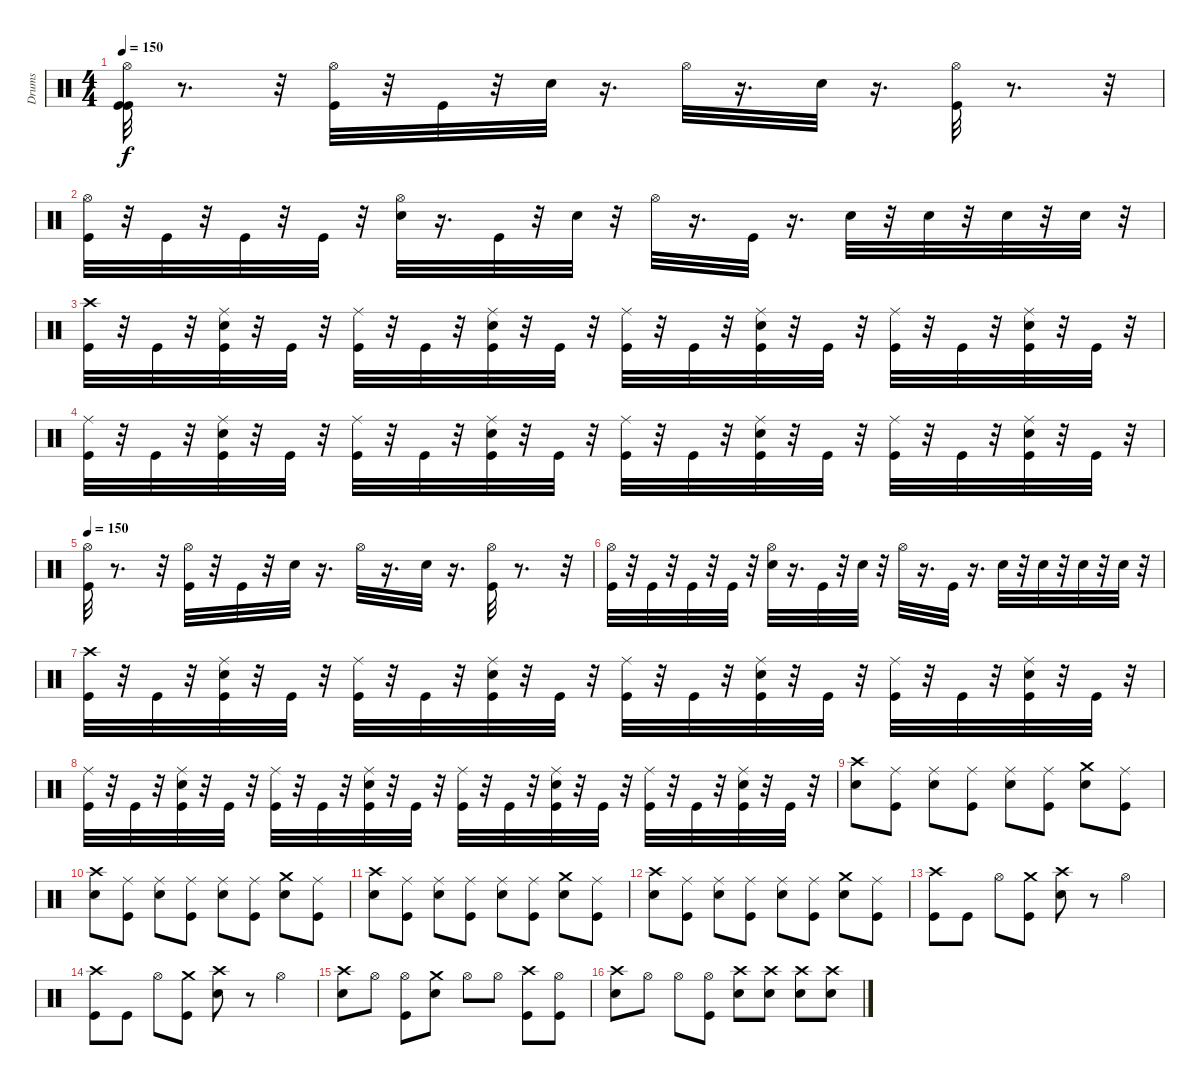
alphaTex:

\track ("Drums" "Drums") {instrument percussion}
\staff {score}
\articulation defaults
\ts (4 4)
\tempo 150
\clef neutral
\ks c
("Hi-Hat (open)" "Kick (hit)" "Kick (hit)").32{dy f} r.8{d} r.32 ("Hi-Hat (open)" "Kick (hit)").32 r.32 "Kick (hit)".32 r.32 "Electric Snare (hit)".32 r.16{d} "Hi-Hat (open)".32 r.16{d} "Electric Snare (hit)".32 r.16{d} ("Hi-Hat (open)" "Kick (hit)").32 r.8{d} r.32 |
("Hi-Hat (open)" "Kick (hit)").32 r.32 "Kick (hit)".32 r.32 "Kick (hit)".32 r.32 "Kick (hit)".32 r.32 ("Hi-Hat (open)" "Electric Snare (hit)").32 r.16{d} "Kick (hit)".32 r.32 "Electric Snare (hit)".32 r.32 "Hi-Hat (open)".32 r.16{d} "Kick (hit)".32 r.16{d} "Electric Snare (hit)".32 r.32 "Electric Snare (hit)".32 r.32 "Electric Snare (hit)".32 r.32 "Electric Snare (hit)".32 r.32 |
("Crash high (hit)" "Kick (hit)").32 r.32 "Kick (hit)".32 r.32 ("Ride (middle)" "Kick (hit)" "Electric Snare (hit)").32 r.32 "Kick (hit)".32 r.32 ("Ride (middle)" "Kick (hit)").32 r.32 "Kick (hit)".32 r.32 ("Ride (middle)" "Electric Snare (hit)" "Kick (hit)").32 r.32 "Kick (hit)".32 r.32 ("Ride (middle)" "Kick (hit)").32 r.32 "Kick (hit)".32 r.32 ("Ride (middle)" "Kick (hit)" "Electric Snare (hit)").32 r.32 "Kick (hit)".32 r.32 ("Ride (middle)" "Kick (hit)").32 r.32 "Kick (hit)".32 r.32 ("Ride (middle)" "Electric Snare (hit)" "Kick (hit)").32 r.32 "Kick (hit)".32 r.32 |
("Ride (middle)" "Kick (hit)").32 r.32 "Kick (hit)".32 r.32 ("Ride (middle)" "Electric Snare (hit)" "Kick (hit)").32 r.32 "Kick (hit)".32 r.32 ("Ride (middle)" "Kick (hit)").32 r.32 "Kick (hit)".32 r.32 ("Ride (middle)" "Electric Snare (hit)" "Kick (hit)").32 r.32 "Kick (hit)".32 r.32 ("Ride (middle)" "Kick (hit)").32 r.32 "Kick (hit)".32 r.32 ("Ride (middle)" "Electric Snare (hit)" "Kick (hit)").32 r.32 "Kick (hit)".32 r.32 ("Ride (middle)" "Kick (hit)").32 r.32 "Kick (hit)".32 r.32 ("Ride (middle)" "Electric Snare (hit)" "Kick (hit)").32 r.32 "Kick (hit)".32 r.32 |
\tempo 150
("Hi-Hat (open)" "Kick (hit)").32 r.8{d} r.32 ("Hi-Hat (open)" "Kick (hit)").32 r.32 "Kick (hit)".32 r.32 "Electric Snare (hit)".32 r.16{d} "Hi-Hat (open)".32 r.16{d} "Electric Snare (hit)".32 r.16{d} ("Hi-Hat (open)" "Kick (hit)").32 r.8{d} r.32 |
("Hi-Hat (open)" "Kick (hit)").32 r.32 "Kick (hit)".32 r.32 "Kick (hit)".32 r.32 "Kick (hit)".32 r.32 ("Hi-Hat (open)" "Electric Snare (hit)").32 r.16{d} "Kick (hit)".32 r.32 "Electric Snare (hit)".32 r.32 "Hi-Hat (open)".32 r.16{d} "Kick (hit)".32 r.16{d} "Electric Snare (hit)".32 r.32 "Electric Snare (hit)".32 r.32 "Electric Snare (hit)".32 r.32 "Electric Snare (hit)".32 r.32 |
("Crash high (hit)" "Kick (hit)").32 r.32 "Kick (hit)".32 r.32 ("Ride (middle)" "Kick (hit)" "Electric Snare (hit)").32 r.32 "Kick (hit)".32 r.32 ("Ride (middle)" "Kick (hit)").32 r.32 "Kick (hit)".32 r.32 ("Ride (middle)" "Electric Snare (hit)" "Kick (hit)").32 r.32 "Kick (hit)".32 r.32 ("Ride (middle)" "Kick (hit)").32 r.32 "Kick (hit)".32 r.32 ("Ride (middle)" "Kick (hit)" "Electric Snare (hit)").32 r.32 "Kick (hit)".32 r.32 ("Ride (middle)" "Kick (hit)").32 r.32 "Kick (hit)".32 r.32 ("Ride (middle)" "Electric Snare (hit)" "Kick (hit)").32 r.32 "Kick (hit)".32 r.32 |
("Ride (middle)" "Kick (hit)").32 r.32 "Kick (hit)".32 r.32 ("Ride (middle)" "Electric Snare (hit)" "Kick (hit)").32 r.32 "Kick (hit)".32 r.32 ("Ride (middle)" "Kick (hit)").32 r.32 "Kick (hit)".32 r.32 ("Ride (middle)" "Electric Snare (hit)" "Kick (hit)").32 r.32 "Kick (hit)".32 r.32 ("Ride (middle)" "Kick (hit)").32 r.32 "Kick (hit)".32 r.32 ("Ride (middle)" "Electric Snare (hit)" "Kick (hit)").32 r.32 "Kick (hit)".32 r.32 ("Ride (middle)" "Kick (hit)").32 r.32 "Kick (hit)".32 r.32 ("Ride (middle)" "Electric Snare (hit)" "Kick (hit)").32 r.32 "Kick (hit)".32 r.32 |
("Crash high (hit)" "Electric Snare (hit)").8 ("Ride (middle)" "Kick (hit)").8 ("Ride (middle)" "Electric Snare (hit)").8 ("Ride (middle)" "Kick (hit)").8 ("Electric Snare (hit)" "Ride (middle)").8 ("Ride (middle)" "Kick (hit)").8 ("Electric Snare (hit)" "Crash medium (hit)").8 ("Ride (middle)" "Kick (hit)").8 |
("Electric Snare (hit)" "Crash high (hit)").8 ("Ride (middle)" "Kick (hit)").8 ("Ride (middle)" "Electric Snare (hit)").8 ("Kick (hit)" "Ride (middle)").8 ("Ride (middle)" "Electric Snare (hit)").8 ("Kick (hit)" "Ride (middle)").8 ("Crash medium (hit)" "Electric Snare (hit)").8 ("Ride (middle)" "Kick (hit)").8 |
("Crash high (hit)" "Electric Snare (hit)").8 ("Ride (middle)" "Kick (hit)").8 ("Electric Snare (hit)" "Ride (middle)").8 ("Ride (middle)" "Kick (hit)").8 ("Electric Snare (hit)" "Ride (middle)").8 ("Ride (middle)" "Kick (hit)").8 ("Crash medium (hit)" "Electric Snare (hit)").8 ("Kick (hit)" "Ride (middle)").8 |
("Crash high (hit)" "Electric Snare (hit)").8 ("Kick (hit)" "Ride (middle)").8 ("Electric Snare (hit)" "Ride (middle)").8 ("Kick (hit)" "Ride (middle)").8 ("Ride (middle)" "Electric Snare (hit)").8 ("Ride (middle)" "Kick (hit)").8 ("Crash medium (hit)" "Electric Snare (hit)").8 ("Ride (middle)" "Kick (hit)").8 |
("Crash high (hit)" "Kick (hit)").8 "Kick (hit)".8 "Hi-Hat (open)".8 ("Kick (hit)" "Crash medium (hit)").8 ("Crash high (hit)" "Electric Snare (hit)").8 r.8 "Hi-Hat (open)".4 |
("Crash high (hit)" "Kick (hit)").8 "Kick (hit)".8 "Hi-Hat (open)".8 ("Crash medium (hit)" "Kick (hit)").8 ("Crash high (hit)" "Electric Snare (hit)").8 r.8 "Hi-Hat (open)".4 |
("Electric Snare (hit)" "Crash high (hit)").8 "Hi-Hat (open)".8 ("Kick (hit)" "Hi-Hat (open)").8 ("Crash medium (hit)" "Electric Snare (hit)").8 "Hi-Hat (open)".8 "Hi-Hat (open)".8 ("Crash high (hit)" "Kick (hit)").8 ("Hi-Hat (open)" "Kick (hit)").8 |
("Electric Snare (hit)" "Crash high (hit)").8 "Hi-Hat (open)".8 "Hi-Hat (open)".8 ("Hi-Hat (open)" "Kick (hit)").8 ("Crash high (hit)" "Electric Snare (hit)").8 ("Crash high (hit)" "Electric Snare (hit)").8 ("Crash high (hit)" "Electric Snare (hit)").8 ("Electric Snare (hit)" "Crash high (hit)").8
